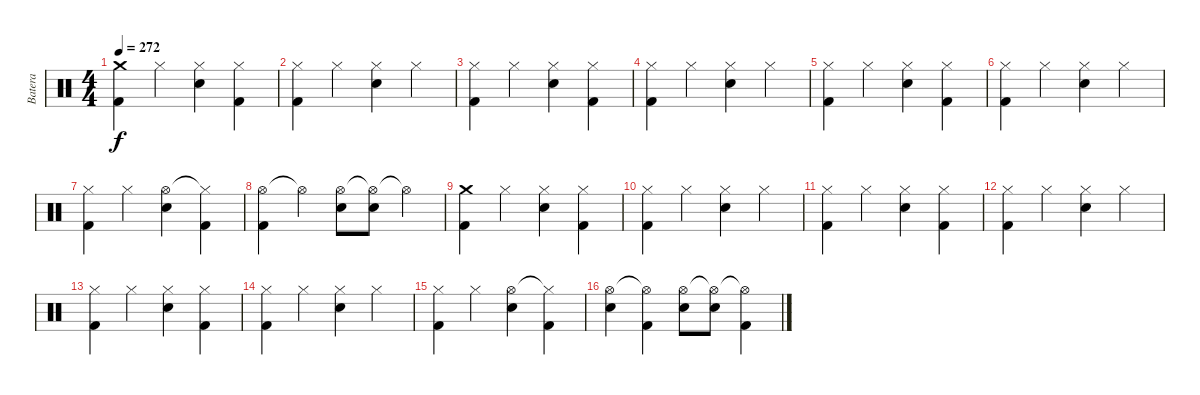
\track ("Batera" "Batera") {instrument percussion}
\staff {score}
\articulation defaults
\ts (4 4)
\tempo 272
\clef neutral
\ks c
("Crash medium (hit)" "Kick (hit) 2").4{dy f} "Hi-Hat (closed)".4 ("Hi-Hat (closed)" "Electric Snare (hit)").4 ("Hi-Hat (closed)" "Kick (hit) 2").4 |
("Hi-Hat (closed)" "Kick (hit) 2").4 "Hi-Hat (closed)".4 ("Hi-Hat (closed)" "Electric Snare (hit)").4 "Hi-Hat (closed)".4 |
("Hi-Hat (closed)" "Kick (hit) 2").4 "Hi-Hat (closed)".4 ("Hi-Hat (closed)" "Electric Snare (hit)").4 ("Hi-Hat (closed)" "Kick (hit) 2").4 |
("Hi-Hat (closed)" "Kick (hit) 2").4 "Hi-Hat (closed)".4 ("Hi-Hat (closed)" "Electric Snare (hit)").4 "Hi-Hat (closed)".4 |
("Hi-Hat (closed)" "Kick (hit) 2").4 "Hi-Hat (closed)".4 ("Hi-Hat (closed)" "Electric Snare (hit)").4 ("Hi-Hat (closed)" "Kick (hit) 2").4 |
("Hi-Hat (closed)" "Kick (hit) 2").4 "Hi-Hat (closed)".4 ("Hi-Hat (closed)" "Electric Snare (hit)").4 "Hi-Hat (closed)".4 |
("Hi-Hat (closed)" "Kick (hit) 2").4 "Hi-Hat (closed)".4 ("Hi-Hat (open)" "Electric Snare (hit)").4 ("Hi-Hat (closed)"{t} "Kick (hit) 2").4 |
("Hi-Hat (open)" "Kick (hit) 2").4 "Hi-Hat (open)"{t}.4 ("Hi-Hat (open)" "Electric Snare (hit)").8 ("Hi-Hat (open)"{t} "Electric Snare (hit)").8 "Hi-Hat (open)"{t}.4 |
("Crash medium (hit)" "Kick (hit) 2").4 "Hi-Hat (closed)".4 ("Hi-Hat (closed)" "Electric Snare (hit)").4 ("Hi-Hat (closed)" "Kick (hit) 2").4 |
("Hi-Hat (closed)" "Kick (hit) 2").4 "Hi-Hat (closed)".4 ("Hi-Hat (closed)" "Electric Snare (hit)").4 "Hi-Hat (closed)".4 |
("Hi-Hat (closed)" "Kick (hit) 2").4 "Hi-Hat (closed)".4 ("Hi-Hat (closed)" "Electric Snare (hit)").4 ("Hi-Hat (closed)" "Kick (hit) 2").4 |
("Hi-Hat (closed)" "Kick (hit) 2").4 "Hi-Hat (closed)".4 ("Hi-Hat (closed)" "Electric Snare (hit)").4 "Hi-Hat (closed)".4 |
("Hi-Hat (closed)" "Kick (hit) 2").4 "Hi-Hat (closed)".4 ("Hi-Hat (closed)" "Electric Snare (hit)").4 ("Hi-Hat (closed)" "Kick (hit) 2").4 |
("Hi-Hat (closed)" "Kick (hit) 2").4 "Hi-Hat (closed)".4 ("Hi-Hat (closed)" "Electric Snare (hit)").4 "Hi-Hat (closed)".4 |
("Hi-Hat (closed)" "Kick (hit) 2").4 "Hi-Hat (closed)".4 ("Hi-Hat (open)" "Electric Snare (hit)").4 ("Hi-Hat (closed)"{t} "Kick (hit) 2").4 |
("Hi-Hat (open)" "Electric Snare (hit)").4 ("Hi-Hat (open)"{t} "Kick (hit) 2").4 ("Hi-Hat (open)" "Electric Snare (hit)").8 ("Hi-Hat (open)"{t} "Electric Snare (hit)").8 ("Hi-Hat (open)"{t} "Kick (hit) 2").4
